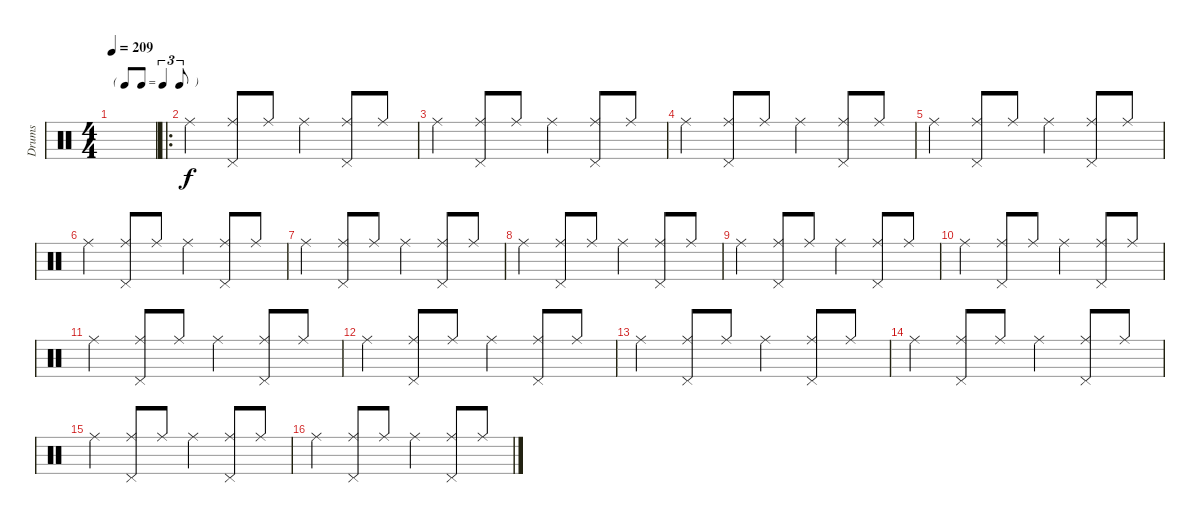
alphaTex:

\track ("Drums" "Drums") {instrument percussion}
\staff {score}
\articulation defaults
\ts (4 4)
\tf triplet8th
\tempo 209
\clef neutral
\ks c
|
\ro "Ride (middle)".4
("Ride (middle)" "Pedal Hi-Hat (hit)").8 "Ride (middle)".8 "Ride (middle)".4 ("Ride (middle)" "Pedal Hi-Hat (hit)").8 "Ride (middle)".8 |
"Ride (middle)".4 ("Ride (middle)" "Pedal Hi-Hat (hit)").8 "Ride (middle)".8 "Ride (middle)".4 ("Ride (middle)" "Pedal Hi-Hat (hit)").8 "Ride (middle)".8 |
"Ride (middle)".4 ("Ride (middle)" "Pedal Hi-Hat (hit)").8 "Ride (middle)".8 "Ride (middle)".4 ("Ride (middle)" "Pedal Hi-Hat (hit)").8 "Ride (middle)".8 |
"Ride (middle)".4 ("Ride (middle)" "Pedal Hi-Hat (hit)").8 "Ride (middle)".8 "Ride (middle)".4 ("Ride (middle)" "Pedal Hi-Hat (hit)").8 "Ride (middle)".8 |
"Ride (middle)".4 ("Ride (middle)" "Pedal Hi-Hat (hit)").8 "Ride (middle)".8 "Ride (middle)".4 ("Ride (middle)" "Pedal Hi-Hat (hit)").8 "Ride (middle)".8 |
"Ride (middle)".4 ("Ride (middle)" "Pedal Hi-Hat (hit)").8 "Ride (middle)".8 "Ride (middle)".4 ("Ride (middle)" "Pedal Hi-Hat (hit)").8 "Ride (middle)".8 |
"Ride (middle)".4 ("Ride (middle)" "Pedal Hi-Hat (hit)").8 "Ride (middle)".8 "Ride (middle)".4 ("Ride (middle)" "Pedal Hi-Hat (hit)").8 "Ride (middle)".8 |
"Ride (middle)".4 ("Ride (middle)" "Pedal Hi-Hat (hit)").8 "Ride (middle)".8 "Ride (middle)".4 ("Ride (middle)" "Pedal Hi-Hat (hit)").8 "Ride (middle)".8 |
"Ride (middle)".4 ("Ride (middle)" "Pedal Hi-Hat (hit)").8 "Ride (middle)".8 "Ride (middle)".4 ("Ride (middle)" "Pedal Hi-Hat (hit)").8 "Ride (middle)".8 |
"Ride (middle)".4 ("Ride (middle)" "Pedal Hi-Hat (hit)").8 "Ride (middle)".8 "Ride (middle)".4 ("Ride (middle)" "Pedal Hi-Hat (hit)").8 "Ride (middle)".8 |
"Ride (middle)".4 ("Ride (middle)" "Pedal Hi-Hat (hit)").8 "Ride (middle)".8 "Ride (middle)".4 ("Ride (middle)" "Pedal Hi-Hat (hit)").8 "Ride (middle)".8 |
"Ride (middle)".4 ("Ride (middle)" "Pedal Hi-Hat (hit)").8 "Ride (middle)".8 "Ride (middle)".4 ("Ride (middle)" "Pedal Hi-Hat (hit)").8 "Ride (middle)".8 |
"Ride (middle)".4 ("Ride (middle)" "Pedal Hi-Hat (hit)").8 "Ride (middle)".8 "Ride (middle)".4 ("Ride (middle)" "Pedal Hi-Hat (hit)").8 "Ride (middle)".8 |
"Ride (middle)".4 ("Ride (middle)" "Pedal Hi-Hat (hit)").8 "Ride (middle)".8 "Ride (middle)".4 ("Ride (middle)" "Pedal Hi-Hat (hit)").8 "Ride (middle)".8 |
"Ride (middle)".4 ("Ride (middle)" "Pedal Hi-Hat (hit)").8 "Ride (middle)".8 "Ride (middle)".4 ("Ride (middle)" "Pedal Hi-Hat (hit)").8 "Ride (middle)".8
